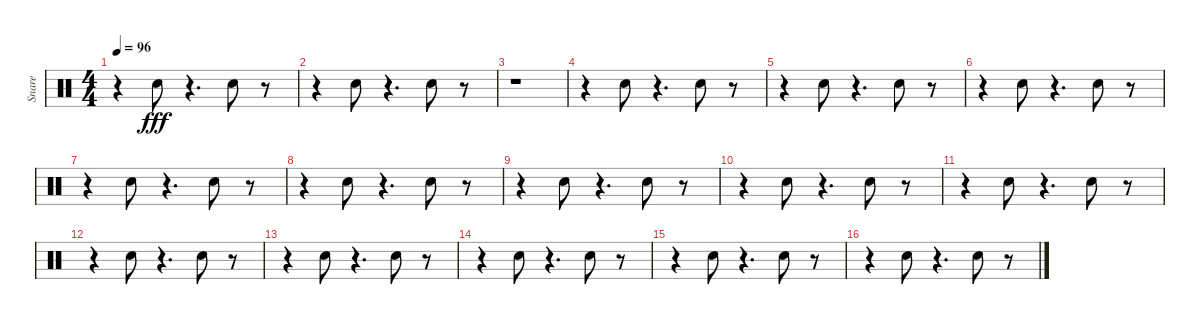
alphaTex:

\track ("Snare" "Snare") {instrument percussion}
\staff {score}
\articulation defaults
\ts (4 4)
\tempo 96
\clef neutral
\ks c
r.4{dy fff} "Snare (hit) 2".8 r.4{d} "Snare (hit) 2".8 r.8 |
r.4 "Snare (hit) 2".8 r.4{d} "Snare (hit) 2".8 r.8 |
r.1 |
r.4 "Snare (hit) 2".8 r.4{d} "Snare (hit) 2".8 r.8 |
r.4 "Snare (hit) 2".8 r.4{d} "Snare (hit) 2".8 r.8 |
r.4 "Snare (hit) 2".8 r.4{d} "Snare (hit) 2".8 r.8 |
r.4 "Snare (hit) 2".8 r.4{d} "Snare (hit) 2".8 r.8 |
r.4 "Snare (hit) 2".8 r.4{d} "Snare (hit) 2".8 r.8 |
r.4 "Snare (hit) 2".8 r.4{d} "Snare (hit) 2".8 r.8 |
r.4 "Snare (hit) 2".8 r.4{d} "Snare (hit) 2".8 r.8 |
r.4 "Snare (hit) 2".8 r.4{d} "Snare (hit) 2".8 r.8 |
r.4 "Snare (hit) 2".8 r.4{d} "Snare (hit) 2".8 r.8 |
r.4 "Snare (hit) 2".8 r.4{d} "Snare (hit) 2".8 r.8 |
r.4 "Snare (hit) 2".8 r.4{d} "Snare (hit) 2".8 r.8 |
r.4 "Snare (hit) 2".8 r.4{d} "Snare (hit) 2".8 r.8 |
r.4 "Snare (hit) 2".8 r.4{d} "Snare (hit) 2".8 r.8
